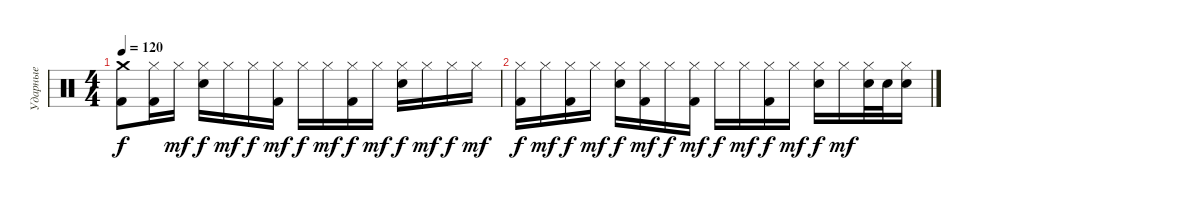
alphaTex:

\track ("Ударные" "Ударные") {instrument percussion}
\staff {score}
\articulation defaults
\ts (4 4)
\tempo 120
\clef neutral
\ks c
("Crash medium (hit)" "Kick (hit) 2").8{dy f} ("Hi-Hat (closed)" "Kick (hit) 2").16 "Hi-Hat (closed)".16{dy mf} ("Hi-Hat (closed)" "Snare (hit) 2").16{dy f} "Hi-Hat (closed)".16{dy mf} "Hi-Hat (closed)".16{dy f} ("Hi-Hat (closed)" "Kick (hit) 2").16{dy mf} "Hi-Hat (closed)".16{dy f} "Hi-Hat (closed)".16{dy mf} ("Hi-Hat (closed)" "Kick (hit) 2").16{dy f} "Hi-Hat (closed)".16{dy mf} ("Hi-Hat (closed)" "Snare (hit) 2").16{dy f} "Hi-Hat (closed)".16{dy mf} "Hi-Hat (closed)".16{dy f} "Hi-Hat (closed)".16{dy mf} |
("Hi-Hat (closed)" "Kick (hit) 2").16{dy f} "Hi-Hat (closed)".16{dy mf} ("Hi-Hat (closed)" "Kick (hit) 2").16{dy f} "Hi-Hat (closed)".16{dy mf} ("Hi-Hat (closed)" "Snare (hit) 2").16{dy f} ("Hi-Hat (closed)" "Kick (hit) 2").16{dy mf} "Hi-Hat (closed)".16{dy f} ("Hi-Hat (closed)" "Kick (hit) 2").16{dy mf} "Hi-Hat (closed)".16{dy f} "Hi-Hat (closed)".16{dy mf} ("Hi-Hat (closed)" "Kick (hit) 2").16{dy f} "Hi-Hat (closed)".16{dy mf} ("Hi-Hat (closed)" "Snare (hit) 2").16{dy f} "Hi-Hat (closed)".16{dy mf} ("Hi-Hat (closed)" "Snare (hit) 2").32 "Snare (hit) 2".32 ("Hi-Hat (closed)" "Snare (hit) 2").16
